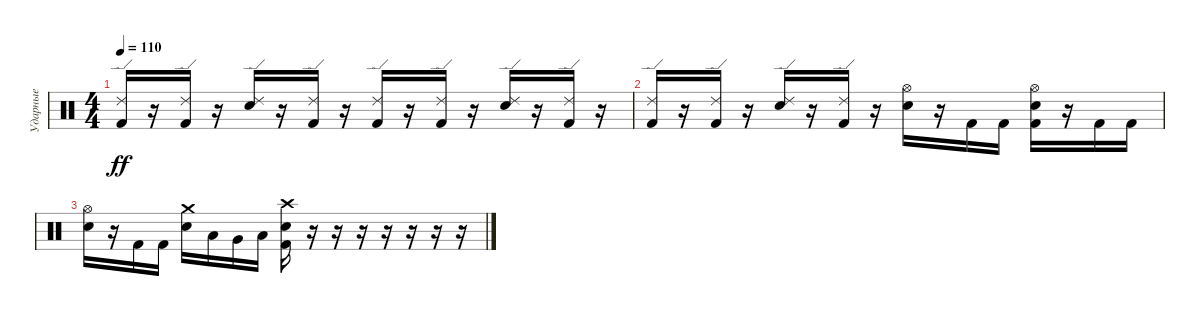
\track ("Ударные" "Ударные") {instrument percussion}
\staff {score}
\articulation defaults
\ts (4 4)
\tempo 110
\clef neutral
\ks c
("Ride (edge) 2" "Kick (hit) 2").16{dy ff} r.16 ("Ride (edge) 2" "Kick (hit) 2").16 r.16 ("Ride (edge) 2" "Snare (hit) 2").16 r.16 ("Ride (edge) 2" "Kick (hit) 2").16 r.16 ("Ride (edge) 2" "Kick (hit) 2").16 r.16 ("Ride (edge) 2" "Kick (hit) 2").16 r.16 ("Ride (edge) 2" "Snare (hit) 2").16 r.16 ("Ride (edge) 2" "Kick (hit) 2").16 r.16 |
("Ride (edge) 2" "Kick (hit) 2").16 r.16 ("Ride (edge) 2" "Kick (hit) 2").16 r.16 ("Ride (edge) 2" "Snare (hit) 2").16 r.16 ("Ride (edge) 2" "Kick (hit) 2").16 r.16 ("Hi-Hat (open)" "Snare (hit) 2").16 r.16 "Kick (hit) 2".16 "Kick (hit) 2".16 ("Hi-Hat (open)" "Snare (hit) 2" "Kick (hit) 2").16 r.16 "Kick (hit) 2".16 "Kick (hit) 2".16 |
("Hi-Hat (open)" "Snare (hit) 2").16 r.16 "Kick (hit) 2".16 "Kick (hit) 2".16 ("Crash medium (hit)" "Snare (hit) 2").16 "Low Floor Tom (hit)".16 "Very Low Tom (hit)".16 "Low Tom (hit)".16 ("Crash high (hit)" "Snare (hit) 2" "Kick (hit) 2").16 r.16 r.16 r.16 r.16 r.16 r.16 r.16
